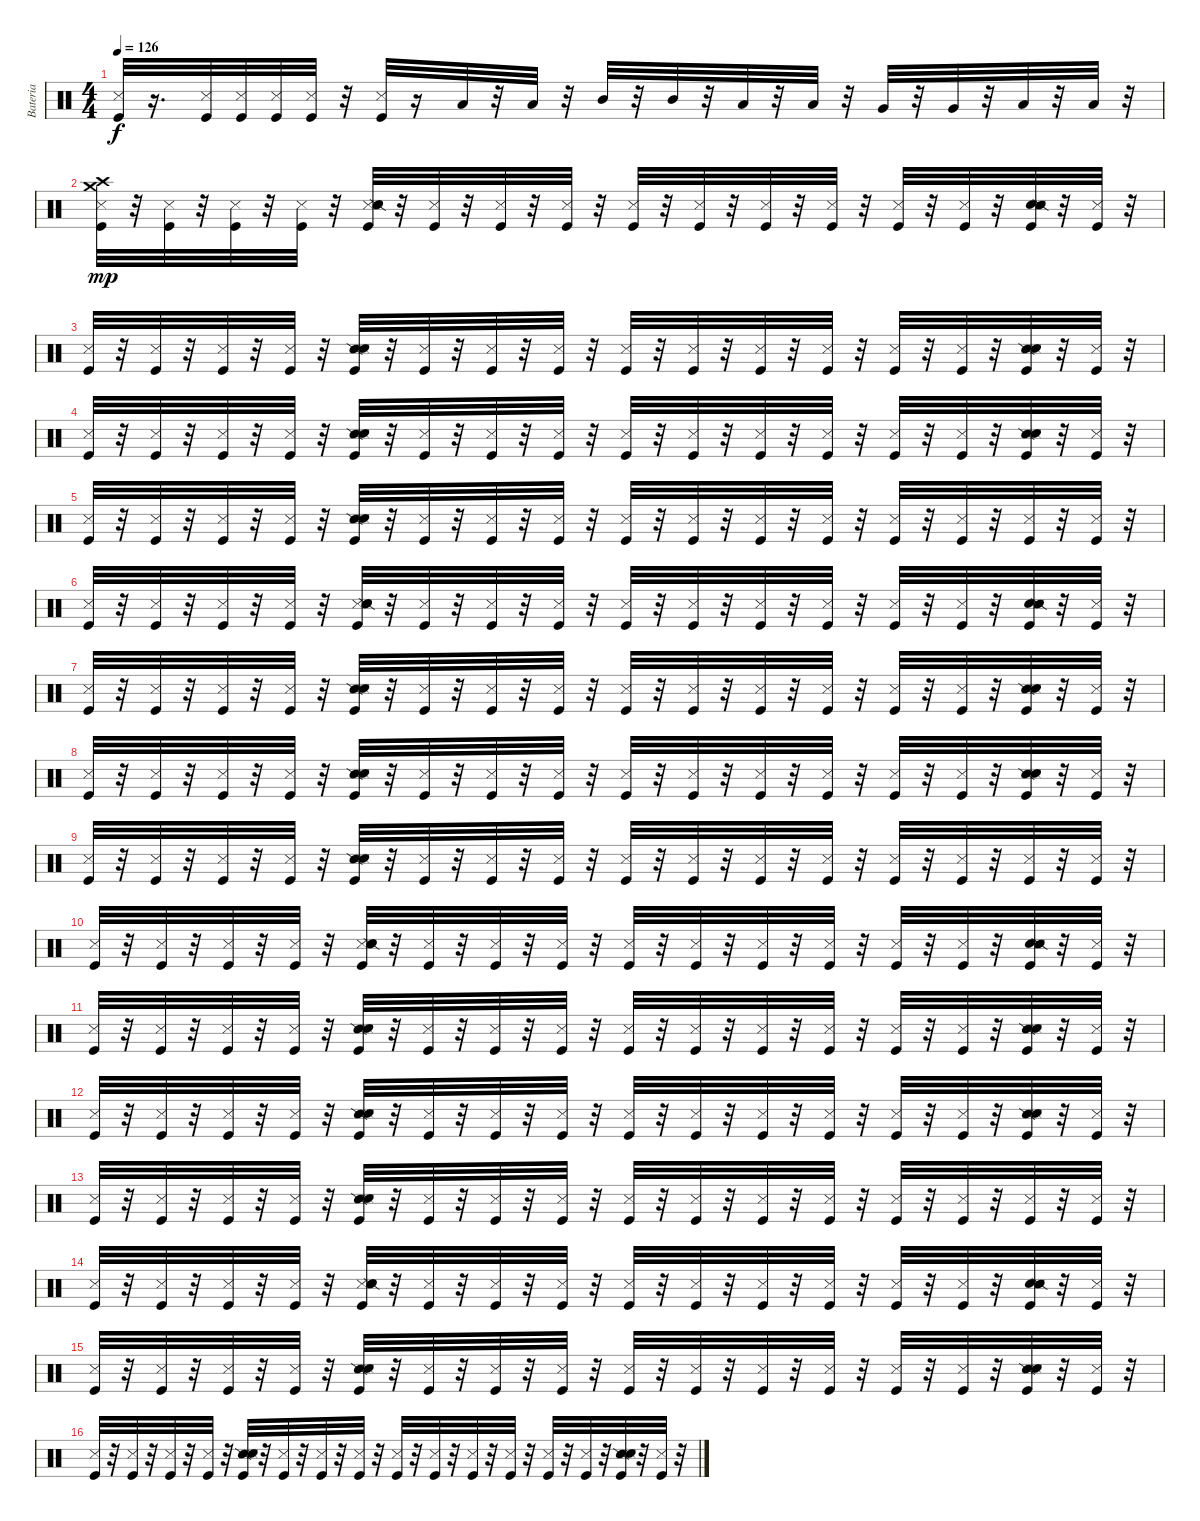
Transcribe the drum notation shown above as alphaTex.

\track ("Bateria" "Bateria") {instrument percussion}
\staff {score}
\articulation defaults
\ts (4 4)
\tempo 126
\clef neutral
\ks c
("Metronome (hit)" "Kick (hit)").32{dy f} r.16{d} ("Metronome (hit)" "Kick (hit)").32 ("Kick (hit)" "Metronome (hit)").32 ("Metronome (hit)" "Kick (hit)").32 ("Kick (hit)" "Metronome (hit)").32 r.32 ("Metronome (hit)" "Kick (hit)").32 r.16 "Low Tom (hit)".32 r.32 "Low Tom (hit)".32 r.32 "Mid Tom (hit)".32 r.32 "Mid Tom (hit)".32 r.32 "Low Tom (hit)".32 r.32 "Low Tom (hit)".32 r.32 "Very Low Tom (hit)".32 r.32 "Very Low Tom (hit)".32 r.32 "Low Floor Tom (hit)".32 r.32 "Low Floor Tom (hit)".32 r.32 |
("Crash high (hit)" "Crash medium (hit)" "Metronome (hit)" "Kick (hit)").32{dy mp} r.32 ("Metronome (hit)" "Kick (hit)").32 r.32 ("Metronome (hit)" "Kick (hit)").32 r.32 ("Metronome (hit)" "Kick (hit)").32 r.32 ("Metronome (hit)" "Kick (hit)" "Snare (side stick) 2" "Metronome (bell)").32 r.32 ("Metronome (hit)" "Kick (hit)").32 r.32 ("Metronome (hit)" "Kick (hit)").32 r.32 ("Metronome (hit)" "Kick (hit)").32 r.32 ("Metronome (hit)" "Kick (hit)").32 r.32 ("Metronome (hit)" "Kick (hit)").32 r.32 ("Metronome (hit)" "Kick (hit)").32 r.32 ("Metronome (hit)" "Kick (hit)").32 r.32 ("Metronome (hit)" "Kick (hit)").32 r.32 ("Metronome (hit)" "Kick (hit)").32 r.32 ("Metronome (bell)" "Metronome (hit)" "Kick (hit)" "Snare (side stick) 2").32 r.32 ("Metronome (hit)" "Kick (hit)").32 r.32 |
("Metronome (hit)" "Kick (hit)").32 r.32 ("Metronome (hit)" "Kick (hit)").32 r.32 ("Metronome (hit)" "Kick (hit)").32 r.32 ("Metronome (hit)" "Kick (hit)").32 r.32 ("Snare (side stick) 2" "Metronome (bell)" "Metronome (hit)" "Kick (hit)").32 r.32 ("Metronome (hit)" "Kick (hit)").32 r.32 ("Metronome (hit)" "Kick (hit)").32 r.32 ("Metronome (hit)" "Kick (hit)").32 r.32 ("Metronome (hit)" "Kick (hit)").32 r.32 ("Metronome (hit)" "Kick (hit)").32 r.32 ("Metronome (hit)" "Kick (hit)").32 r.32 ("Metronome (hit)" "Kick (hit)").32 r.32 ("Metronome (hit)" "Kick (hit)").32 r.32 ("Metronome (hit)" "Kick (hit)").32 r.32 ("Snare (side stick) 2" "Metronome (bell)" "Metronome (hit)" "Kick (hit)").32 r.32 ("Metronome (hit)" "Kick (hit)").32 r.32 |
("Metronome (hit)" "Kick (hit)").32 r.32 ("Metronome (hit)" "Kick (hit)").32 r.32 ("Metronome (hit)" "Kick (hit)").32 r.32 ("Metronome (hit)" "Kick (hit)").32 r.32 ("Snare (side stick) 2" "Metronome (bell)" "Metronome (hit)" "Kick (hit)").32 r.32 ("Metronome (hit)" "Kick (hit)").32 r.32 ("Metronome (hit)" "Kick (hit)").32 r.32 ("Metronome (hit)" "Kick (hit)").32 r.32 ("Metronome (hit)" "Kick (hit)").32 r.32 ("Metronome (hit)" "Kick (hit)").32 r.32 ("Metronome (hit)" "Kick (hit)").32 r.32 ("Metronome (hit)" "Kick (hit)").32 r.32 ("Metronome (hit)" "Kick (hit)").32 r.32 ("Metronome (hit)" "Kick (hit)").32 r.32 ("Snare (side stick) 2" "Metronome (bell)" "Metronome (hit)" "Kick (hit)").32 r.32 ("Metronome (hit)" "Kick (hit)").32 r.32 |
("Metronome (hit)" "Kick (hit)").32 r.32 ("Metronome (hit)" "Kick (hit)").32 r.32 ("Metronome (hit)" "Kick (hit)").32 r.32 ("Metronome (hit)" "Kick (hit)").32 r.32 ("Snare (side stick) 2" "Metronome (hit)" "Kick (hit)" "Metronome (bell)").32 r.32 ("Metronome (hit)" "Kick (hit)").32 r.32 ("Metronome (hit)" "Kick (hit)").32 r.32 ("Metronome (hit)" "Kick (hit)").32 r.32 ("Metronome (hit)" "Kick (hit)").32 r.32 ("Metronome (hit)" "Kick (hit)").32 r.32 ("Metronome (hit)" "Kick (hit)").32 r.32 ("Metronome (hit)" "Kick (hit)").32 r.32 ("Metronome (hit)" "Kick (hit)").32 r.32 ("Metronome (hit)" "Kick (hit)").32 r.32 ("Metronome (hit)" "Kick (hit)").32 r.32 ("Metronome (hit)" "Kick (hit)").32 r.32 |
("Metronome (hit)" "Kick (hit)").32 r.32 ("Metronome (hit)" "Kick (hit)").32 r.32 ("Metronome (hit)" "Kick (hit)").32 r.32 ("Metronome (hit)" "Kick (hit)").32 r.32 ("Metronome (hit)" "Kick (hit)" "Snare (side stick) 2" "Metronome (bell)").32 r.32 ("Metronome (hit)" "Kick (hit)").32 r.32 ("Metronome (hit)" "Kick (hit)").32 r.32 ("Metronome (hit)" "Kick (hit)").32 r.32 ("Metronome (hit)" "Kick (hit)").32 r.32 ("Metronome (hit)" "Kick (hit)").32 r.32 ("Metronome (hit)" "Kick (hit)").32 r.32 ("Metronome (hit)" "Kick (hit)").32 r.32 ("Metronome (hit)" "Kick (hit)").32 r.32 ("Metronome (hit)" "Kick (hit)").32 r.32 ("Metronome (bell)" "Metronome (hit)" "Kick (hit)" "Snare (side stick) 2").32 r.32 ("Metronome (hit)" "Kick (hit)").32 r.32 |
("Metronome (hit)" "Kick (hit)").32 r.32 ("Metronome (hit)" "Kick (hit)").32 r.32 ("Metronome (hit)" "Kick (hit)").32 r.32 ("Metronome (hit)" "Kick (hit)").32 r.32 ("Snare (side stick) 2" "Metronome (bell)" "Metronome (hit)" "Kick (hit)").32 r.32 ("Metronome (hit)" "Kick (hit)").32 r.32 ("Metronome (hit)" "Kick (hit)").32 r.32 ("Metronome (hit)" "Kick (hit)").32 r.32 ("Metronome (hit)" "Kick (hit)").32 r.32 ("Metronome (hit)" "Kick (hit)").32 r.32 ("Metronome (hit)" "Kick (hit)").32 r.32 ("Metronome (hit)" "Kick (hit)").32 r.32 ("Metronome (hit)" "Kick (hit)").32 r.32 ("Metronome (hit)" "Kick (hit)").32 r.32 ("Snare (side stick) 2" "Metronome (bell)" "Metronome (hit)" "Kick (hit)").32 r.32 ("Metronome (hit)" "Kick (hit)").32 r.32 |
("Metronome (hit)" "Kick (hit)").32 r.32 ("Metronome (hit)" "Kick (hit)").32 r.32 ("Metronome (hit)" "Kick (hit)").32 r.32 ("Metronome (hit)" "Kick (hit)").32 r.32 ("Snare (side stick) 2" "Metronome (bell)" "Metronome (hit)" "Kick (hit)").32 r.32 ("Metronome (hit)" "Kick (hit)").32 r.32 ("Metronome (hit)" "Kick (hit)").32 r.32 ("Metronome (hit)" "Kick (hit)").32 r.32 ("Metronome (hit)" "Kick (hit)").32 r.32 ("Metronome (hit)" "Kick (hit)").32 r.32 ("Metronome (hit)" "Kick (hit)").32 r.32 ("Metronome (hit)" "Kick (hit)").32 r.32 ("Metronome (hit)" "Kick (hit)").32 r.32 ("Metronome (hit)" "Kick (hit)").32 r.32 ("Snare (side stick) 2" "Metronome (bell)" "Metronome (hit)" "Kick (hit)").32 r.32 ("Metronome (hit)" "Kick (hit)").32 r.32 |
("Metronome (hit)" "Kick (hit)").32 r.32 ("Metronome (hit)" "Kick (hit)").32 r.32 ("Metronome (hit)" "Kick (hit)").32 r.32 ("Metronome (hit)" "Kick (hit)").32 r.32 ("Snare (side stick) 2" "Metronome (hit)" "Kick (hit)" "Metronome (bell)").32 r.32 ("Metronome (hit)" "Kick (hit)").32 r.32 ("Metronome (hit)" "Kick (hit)").32 r.32 ("Metronome (hit)" "Kick (hit)").32 r.32 ("Metronome (hit)" "Kick (hit)").32 r.32 ("Metronome (hit)" "Kick (hit)").32 r.32 ("Metronome (hit)" "Kick (hit)").32 r.32 ("Metronome (hit)" "Kick (hit)").32 r.32 ("Metronome (hit)" "Kick (hit)").32 r.32 ("Metronome (hit)" "Kick (hit)").32 r.32 ("Metronome (hit)" "Kick (hit)").32 r.32 ("Metronome (hit)" "Kick (hit)").32 r.32 |
("Metronome (hit)" "Kick (hit)").32 r.32 ("Metronome (hit)" "Kick (hit)").32 r.32 ("Metronome (hit)" "Kick (hit)").32 r.32 ("Metronome (hit)" "Kick (hit)").32 r.32 ("Metronome (hit)" "Kick (hit)" "Snare (side stick) 2" "Metronome (bell)").32 r.32 ("Metronome (hit)" "Kick (hit)").32 r.32 ("Metronome (hit)" "Kick (hit)").32 r.32 ("Metronome (hit)" "Kick (hit)").32 r.32 ("Metronome (hit)" "Kick (hit)").32 r.32 ("Metronome (hit)" "Kick (hit)").32 r.32 ("Metronome (hit)" "Kick (hit)").32 r.32 ("Metronome (hit)" "Kick (hit)").32 r.32 ("Metronome (hit)" "Kick (hit)").32 r.32 ("Metronome (hit)" "Kick (hit)").32 r.32 ("Metronome (bell)" "Metronome (hit)" "Kick (hit)" "Snare (side stick) 2").32 r.32 ("Metronome (hit)" "Kick (hit)").32 r.32 |
("Metronome (hit)" "Kick (hit)").32 r.32 ("Metronome (hit)" "Kick (hit)").32 r.32 ("Metronome (hit)" "Kick (hit)").32 r.32 ("Metronome (hit)" "Kick (hit)").32 r.32 ("Snare (side stick) 2" "Metronome (bell)" "Metronome (hit)" "Kick (hit)").32 r.32 ("Metronome (hit)" "Kick (hit)").32 r.32 ("Metronome (hit)" "Kick (hit)").32 r.32 ("Metronome (hit)" "Kick (hit)").32 r.32 ("Metronome (hit)" "Kick (hit)").32 r.32 ("Metronome (hit)" "Kick (hit)").32 r.32 ("Metronome (hit)" "Kick (hit)").32 r.32 ("Metronome (hit)" "Kick (hit)").32 r.32 ("Metronome (hit)" "Kick (hit)").32 r.32 ("Metronome (hit)" "Kick (hit)").32 r.32 ("Snare (side stick) 2" "Metronome (bell)" "Metronome (hit)" "Kick (hit)").32 r.32 ("Metronome (hit)" "Kick (hit)").32 r.32 |
("Metronome (hit)" "Kick (hit)").32 r.32 ("Metronome (hit)" "Kick (hit)").32 r.32 ("Metronome (hit)" "Kick (hit)").32 r.32 ("Metronome (hit)" "Kick (hit)").32 r.32 ("Snare (side stick) 2" "Metronome (bell)" "Metronome (hit)" "Kick (hit)").32 r.32 ("Metronome (hit)" "Kick (hit)").32 r.32 ("Metronome (hit)" "Kick (hit)").32 r.32 ("Metronome (hit)" "Kick (hit)").32 r.32 ("Metronome (hit)" "Kick (hit)").32 r.32 ("Metronome (hit)" "Kick (hit)").32 r.32 ("Metronome (hit)" "Kick (hit)").32 r.32 ("Metronome (hit)" "Kick (hit)").32 r.32 ("Metronome (hit)" "Kick (hit)").32 r.32 ("Metronome (hit)" "Kick (hit)").32 r.32 ("Snare (side stick) 2" "Metronome (bell)" "Metronome (hit)" "Kick (hit)").32 r.32 ("Metronome (hit)" "Kick (hit)").32 r.32 |
("Metronome (hit)" "Kick (hit)").32 r.32 ("Metronome (hit)" "Kick (hit)").32 r.32 ("Metronome (hit)" "Kick (hit)").32 r.32 ("Metronome (hit)" "Kick (hit)").32 r.32 ("Snare (side stick) 2" "Metronome (hit)" "Kick (hit)" "Metronome (bell)").32 r.32 ("Metronome (hit)" "Kick (hit)").32 r.32 ("Metronome (hit)" "Kick (hit)").32 r.32 ("Metronome (hit)" "Kick (hit)").32 r.32 ("Metronome (hit)" "Kick (hit)").32 r.32 ("Metronome (hit)" "Kick (hit)").32 r.32 ("Metronome (hit)" "Kick (hit)").32 r.32 ("Metronome (hit)" "Kick (hit)").32 r.32 ("Metronome (hit)" "Kick (hit)").32 r.32 ("Metronome (hit)" "Kick (hit)").32 r.32 ("Metronome (hit)" "Kick (hit)").32 r.32 ("Metronome (hit)" "Kick (hit)").32 r.32 |
("Metronome (hit)" "Kick (hit)").32 r.32 ("Metronome (hit)" "Kick (hit)").32 r.32 ("Metronome (hit)" "Kick (hit)").32 r.32 ("Metronome (hit)" "Kick (hit)").32 r.32 ("Metronome (hit)" "Kick (hit)" "Snare (side stick) 2" "Metronome (bell)").32 r.32 ("Metronome (hit)" "Kick (hit)").32 r.32 ("Metronome (hit)" "Kick (hit)").32 r.32 ("Metronome (hit)" "Kick (hit)").32 r.32 ("Metronome (hit)" "Kick (hit)").32 r.32 ("Metronome (hit)" "Kick (hit)").32 r.32 ("Metronome (hit)" "Kick (hit)").32 r.32 ("Metronome (hit)" "Kick (hit)").32 r.32 ("Metronome (hit)" "Kick (hit)").32 r.32 ("Metronome (hit)" "Kick (hit)").32 r.32 ("Metronome (bell)" "Metronome (hit)" "Kick (hit)" "Snare (side stick) 2").32 r.32 ("Metronome (hit)" "Kick (hit)").32 r.32 |
("Metronome (hit)" "Kick (hit)").32 r.32 ("Metronome (hit)" "Kick (hit)").32 r.32 ("Metronome (hit)" "Kick (hit)").32 r.32 ("Metronome (hit)" "Kick (hit)").32 r.32 ("Snare (side stick) 2" "Metronome (bell)" "Metronome (hit)" "Kick (hit)").32 r.32 ("Metronome (hit)" "Kick (hit)").32 r.32 ("Metronome (hit)" "Kick (hit)").32 r.32 ("Metronome (hit)" "Kick (hit)").32 r.32 ("Metronome (hit)" "Kick (hit)").32 r.32 ("Metronome (hit)" "Kick (hit)").32 r.32 ("Metronome (hit)" "Kick (hit)").32 r.32 ("Metronome (hit)" "Kick (hit)").32 r.32 ("Metronome (hit)" "Kick (hit)").32 r.32 ("Metronome (hit)" "Kick (hit)").32 r.32 ("Snare (side stick) 2" "Metronome (bell)" "Metronome (hit)" "Kick (hit)").32 r.32 ("Metronome (hit)" "Kick (hit)").32 r.32 |
("Metronome (hit)" "Kick (hit)").32 r.32 ("Metronome (hit)" "Kick (hit)").32 r.32 ("Metronome (hit)" "Kick (hit)").32 r.32 ("Metronome (hit)" "Kick (hit)").32 r.32 ("Snare (side stick) 2" "Metronome (bell)" "Metronome (hit)" "Kick (hit)").32 r.32 ("Metronome (hit)" "Kick (hit)").32 r.32 ("Metronome (hit)" "Kick (hit)").32 r.32 ("Metronome (hit)" "Kick (hit)").32 r.32 ("Metronome (hit)" "Kick (hit)").32 r.32 ("Metronome (hit)" "Kick (hit)").32 r.32 ("Metronome (hit)" "Kick (hit)").32 r.32 ("Metronome (hit)" "Kick (hit)").32 r.32 ("Metronome (hit)" "Kick (hit)").32 r.32 ("Metronome (hit)" "Kick (hit)").32 r.32 ("Snare (side stick) 2" "Metronome (bell)" "Metronome (hit)" "Kick (hit)").32 r.32 ("Metronome (hit)" "Kick (hit)").32 r.32
